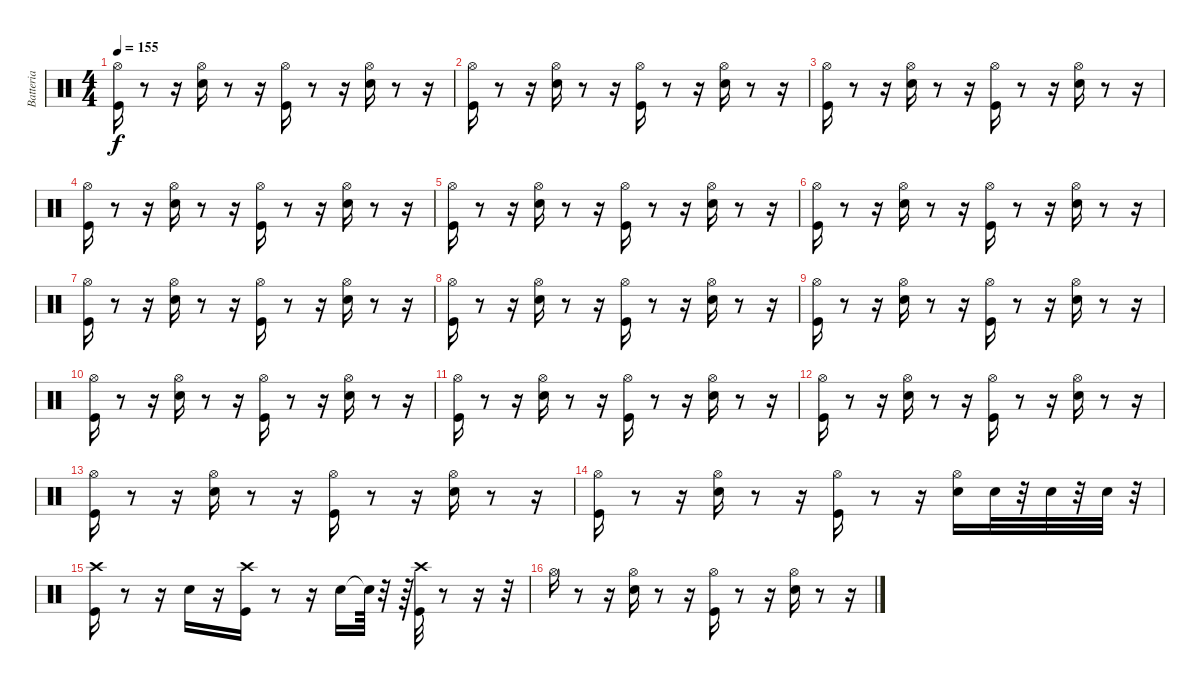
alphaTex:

\track ("Batteria" "Batteria") {instrument percussion bank 20}
\staff {score}
\articulation defaults
\ts (4 4)
\tempo 155
\clef neutral
\ks c
("Hi-Hat (open)" "Kick (hit)").16{dy f} r.8 r.16 ("Hi-Hat (open)" "Snare (hit) 2").16 r.8 r.16 ("Kick (hit)" "Hi-Hat (open)").16 r.8 r.16 ("Snare (hit) 2" "Hi-Hat (open)").16 r.8 r.16 |
("Hi-Hat (open)" "Kick (hit)").16 r.8 r.16 ("Hi-Hat (open)" "Snare (hit) 2").16 r.8 r.16 ("Kick (hit)" "Hi-Hat (open)").16 r.8 r.16 ("Snare (hit) 2" "Hi-Hat (open)").16 r.8 r.16 |
("Hi-Hat (open)" "Kick (hit)").16 r.8 r.16 ("Hi-Hat (open)" "Snare (hit) 2").16 r.8 r.16 ("Kick (hit)" "Hi-Hat (open)").16 r.8 r.16 ("Snare (hit) 2" "Hi-Hat (open)").16 r.8 r.16 |
("Hi-Hat (open)" "Kick (hit)").16 r.8 r.16 ("Hi-Hat (open)" "Snare (hit) 2").16 r.8 r.16 ("Kick (hit)" "Hi-Hat (open)").16 r.8 r.16 ("Snare (hit) 2" "Hi-Hat (open)").16 r.8 r.16 |
("Hi-Hat (open)" "Kick (hit)").16 r.8 r.16 ("Hi-Hat (open)" "Snare (hit) 2").16 r.8 r.16 ("Kick (hit)" "Hi-Hat (open)").16 r.8 r.16 ("Snare (hit) 2" "Hi-Hat (open)").16 r.8 r.16 |
("Hi-Hat (open)" "Kick (hit)").16 r.8 r.16 ("Hi-Hat (open)" "Snare (hit) 2").16 r.8 r.16 ("Kick (hit)" "Hi-Hat (open)").16 r.8 r.16 ("Snare (hit) 2" "Hi-Hat (open)").16 r.8 r.16 |
("Hi-Hat (open)" "Kick (hit)").16 r.8 r.16 ("Hi-Hat (open)" "Snare (hit) 2").16 r.8 r.16 ("Kick (hit)" "Hi-Hat (open)").16 r.8 r.16 ("Snare (hit) 2" "Hi-Hat (open)").16 r.8 r.16 |
("Hi-Hat (open)" "Kick (hit)").16 r.8 r.16 ("Hi-Hat (open)" "Snare (hit) 2").16 r.8 r.16 ("Kick (hit)" "Hi-Hat (open)").16 r.8 r.16 ("Snare (hit) 2" "Hi-Hat (open)").16 r.8 r.16 |
("Hi-Hat (open)" "Kick (hit)").16 r.8 r.16 ("Hi-Hat (open)" "Snare (hit) 2").16 r.8 r.16 ("Kick (hit)" "Hi-Hat (open)").16 r.8 r.16 ("Snare (hit) 2" "Hi-Hat (open)").16 r.8 r.16 |
("Hi-Hat (open)" "Kick (hit)").16 r.8 r.16 ("Hi-Hat (open)" "Snare (hit) 2").16 r.8 r.16 ("Kick (hit)" "Hi-Hat (open)").16 r.8 r.16 ("Snare (hit) 2" "Hi-Hat (open)").16 r.8 r.16 |
("Hi-Hat (open)" "Kick (hit)").16 r.8 r.16 ("Hi-Hat (open)" "Snare (hit) 2").16 r.8 r.16 ("Kick (hit)" "Hi-Hat (open)").16 r.8 r.16 ("Snare (hit) 2" "Hi-Hat (open)").16 r.8 r.16 |
("Hi-Hat (open)" "Kick (hit)").16 r.8 r.16 ("Hi-Hat (open)" "Snare (hit) 2").16 r.8 r.16 ("Kick (hit)" "Hi-Hat (open)").16 r.8 r.16 ("Snare (hit) 2" "Hi-Hat (open)").16 r.8 r.16 |
("Hi-Hat (open)" "Kick (hit)").16 r.8 r.16 ("Hi-Hat (open)" "Snare (hit) 2").16 r.8 r.16 ("Kick (hit)" "Hi-Hat (open)").16 r.8 r.16 ("Snare (hit) 2" "Hi-Hat (open)").16 r.8 r.16 |
("Kick (hit)" "Hi-Hat (open)").16 r.8 r.16 ("Snare (hit) 2" "Hi-Hat (open)").16 r.8 r.16 ("Kick (hit)" "Hi-Hat (open)").16 r.8 r.16 ("Snare (hit) 2" "Hi-Hat (open)").16 "Snare (hit) 2".32 r.32 "Electric Snare (hit)".32 r.32 "Electric Snare (hit)".32 r.32 |
("Crash high (hit)" "Kick (hit)").16 r.8 r.16 "Snare (hit) 2".16 r.16 ("Kick (hit)" "Crash high (hit)").16 r.8 r.16 "Snare (hit) 2".16 "Snare (hit)"{t}.64 r.32 r.64 ("Kick (hit)" "Crash high (hit)").32 r.8 r.16 r.32 |
"Hi-Hat (open)".16 r.8 r.16 ("Hi-Hat (open)" "Snare (hit) 2").16 r.8 r.16 ("Hi-Hat (open)" "Kick (hit)").16 r.8 r.16 ("Hi-Hat (open)" "Snare (hit) 2").16 r.8 r.16
